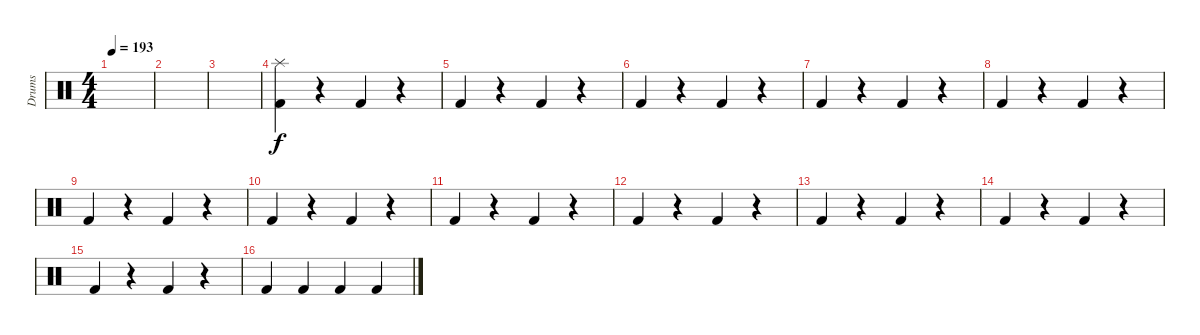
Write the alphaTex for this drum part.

\track ("Drums" "Drums") {instrument percussion}
\staff {score}
\articulation defaults
\ts (4 4)
\tempo 193
\clef neutral
\ks c
|
|
|
("Splash (hit)" "Kick (hit) 2").4 r.4 "Kick (hit) 2".4 r.4 |
"Kick (hit) 2".4 r.4 "Kick (hit) 2".4 r.4 |
"Kick (hit) 2".4 r.4 "Kick (hit) 2".4 r.4 |
"Kick (hit) 2".4 r.4 "Kick (hit) 2".4 r.4 |
"Kick (hit) 2".4 r.4 "Kick (hit) 2".4 r.4 |
"Kick (hit) 2".4 r.4 "Kick (hit) 2".4 r.4 |
"Kick (hit) 2".4 r.4 "Kick (hit) 2".4 r.4 |
"Kick (hit) 2".4 r.4 "Kick (hit) 2".4 r.4 |
"Kick (hit) 2".4 r.4 "Kick (hit) 2".4 r.4 |
"Kick (hit) 2".4 r.4 "Kick (hit) 2".4 r.4 |
"Kick (hit) 2".4 r.4 "Kick (hit) 2".4 r.4 |
"Kick (hit) 2".4 r.4 "Kick (hit) 2".4 r.4 |
"Kick (hit) 2".4 "Kick (hit) 2".4 "Kick (hit) 2".4 "Kick (hit) 2".4
